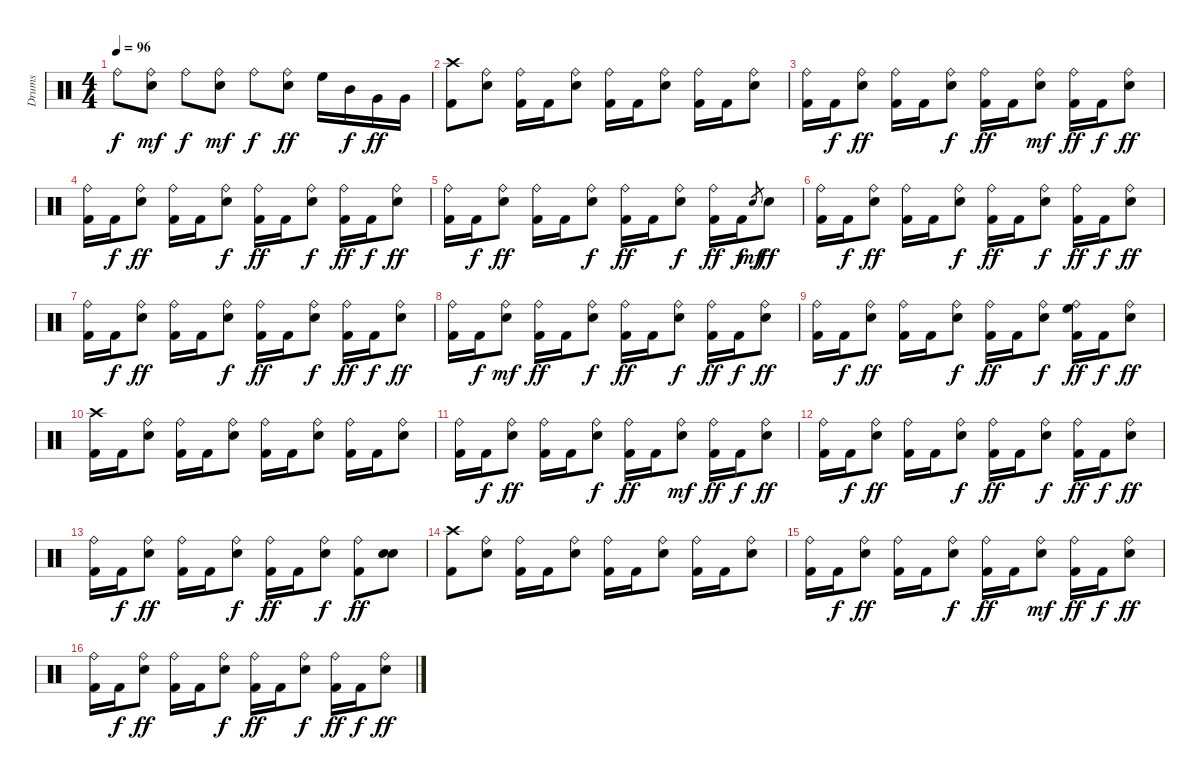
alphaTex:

\track ("Drums" "Drums") {instrument percussion}
\staff {score}
\articulation defaults
\ts (4 4)
\tempo 96
\clef neutral
\ks c "Ride (bell)".8{dy f}
("Electric Snare (hit)" "Ride (bell)").8{dy mf} "Ride (bell)".8{dy f} ("Electric Snare (hit)" "Ride (bell)").8{dy mf} "Ride (bell)".8{dy f} ("Electric Snare (hit)" "Ride (bell)").8{dy ff} "High Floor Tom (hit)".16 "Mid Tom (hit)".16{dy f} "Very Low Tom (hit)".16{dy ff} "Very Low Tom (hit)".16 |
("Kick (hit) 2" "Crash high (hit)").8 ("Electric Snare (hit)" "Ride (bell)").8 ("Ride (bell)" "Kick (hit) 2").16 "Kick (hit) 2".16 ("Electric Snare (hit)" "Ride (bell)").8 ("Ride (bell)" "Kick (hit) 2").16 "Kick (hit) 2".16 ("Electric Snare (hit)" "Ride (bell)").8 ("Ride (bell)" "Kick (hit) 2").16 "Kick (hit) 2".16 ("Electric Snare (hit)" "Ride (bell)").8 |
("Ride (bell)" "Kick (hit) 2").16 "Kick (hit) 2".16{dy f} ("Electric Snare (hit)" "Ride (bell)").8{dy ff} ("Ride (bell)" "Kick (hit) 2").16 "Kick (hit) 2".16 ("Electric Snare (hit)" "Ride (bell)").8{dy f} ("Ride (bell)" "Kick (hit) 2").16{dy ff} "Kick (hit) 2".16 ("Electric Snare (hit)" "Ride (bell)").8{dy mf} ("Ride (bell)" "Kick (hit) 2").16{dy ff} "Kick (hit) 2".16{dy f} ("Electric Snare (hit)" "Ride (bell)").8{dy ff} |
("Ride (bell)" "Kick (hit) 2").16 "Kick (hit) 2".16{dy f} ("Electric Snare (hit)" "Ride (bell)").8{dy ff} ("Ride (bell)" "Kick (hit) 2").16 "Kick (hit) 2".16 ("Electric Snare (hit)" "Ride (bell)").8{dy f} ("Ride (bell)" "Kick (hit) 2").16{dy ff} "Kick (hit) 2".16 ("Electric Snare (hit)" "Ride (bell)").8{dy f} ("Ride (bell)" "Kick (hit) 2").16{dy ff} "Kick (hit) 2".16{dy f} ("Electric Snare (hit)" "Ride (bell)").8{dy ff} |
("Ride (bell)" "Kick (hit) 2").16 "Kick (hit) 2".16{dy f} ("Electric Snare (hit)" "Ride (bell)").8{dy ff} ("Ride (bell)" "Kick (hit) 2").16 "Kick (hit) 2".16 ("Electric Snare (hit)" "Ride (bell)").8{dy f} ("Ride (bell)" "Kick (hit) 2").16{dy ff} "Kick (hit) 2".16 ("Electric Snare (hit)" "Ride (bell)").8{dy f} ("Ride (bell)" "Kick (hit) 2").16{dy ff} "Kick (hit) 2".16{dy f} "Electric Snare (hit)".8{gr dy mf} "Electric Snare (hit)".8{dy ff} |
("Ride (bell)" "Kick (hit) 2").16 "Kick (hit) 2".16{dy f} ("Electric Snare (hit)" "Ride (bell)").8{dy ff} ("Ride (bell)" "Kick (hit) 2").16 "Kick (hit) 2".16 ("Electric Snare (hit)" "Ride (bell)").8{dy f} ("Ride (bell)" "Kick (hit) 2").16{dy ff} "Kick (hit) 2".16 ("Electric Snare (hit)" "Ride (bell)").8{dy f} ("Ride (bell)" "Kick (hit) 2").16{dy ff} "Kick (hit) 2".16{dy f} ("Electric Snare (hit)" "Ride (bell)").8{dy ff} |
("Ride (bell)" "Kick (hit) 2").16 "Kick (hit) 2".16{dy f} ("Electric Snare (hit)" "Ride (bell)").8{dy ff} ("Ride (bell)" "Kick (hit) 2").16 "Kick (hit) 2".16 ("Electric Snare (hit)" "Ride (bell)").8{dy f} ("Ride (bell)" "Kick (hit) 2").16{dy ff} "Kick (hit) 2".16 ("Electric Snare (hit)" "Ride (bell)").8{dy f} ("Ride (bell)" "Kick (hit) 2").16{dy ff} "Kick (hit) 2".16{dy f} ("Electric Snare (hit)" "Ride (bell)").8{dy ff} |
("Ride (bell)" "Kick (hit) 2").16 "Kick (hit) 2".16{dy f} ("Electric Snare (hit)" "Ride (bell)").8{dy mf} ("Ride (bell)" "Kick (hit) 2").16{dy ff} "Kick (hit) 2".16 ("Electric Snare (hit)" "Ride (bell)").8{dy f} ("Ride (bell)" "Kick (hit) 2").16{dy ff} "Kick (hit) 2".16 ("Electric Snare (hit)" "Ride (bell)").8{dy f} ("Ride (bell)" "Kick (hit) 2").16{dy ff} "Kick (hit) 2".16{dy f} ("Electric Snare (hit)" "Ride (bell)").8{dy ff} |
("Ride (bell)" "Kick (hit) 2").16 "Kick (hit) 2".16{dy f} ("Electric Snare (hit)" "Ride (bell)").8{dy ff} ("Ride (bell)" "Kick (hit) 2").16 "Kick (hit) 2".16 ("Electric Snare (hit)" "Ride (bell)").8{dy f} ("Ride (bell)" "Kick (hit) 2").16{dy ff} "Kick (hit) 2".16 ("Electric Snare (hit)" "Ride (bell)").8{dy f} ("Ride (bell)" "High Floor Tom (hit)" "Kick (hit) 2").16{dy ff} "Kick (hit) 2".16{dy f} ("Electric Snare (hit)" "Ride (bell)").8{dy ff} |
("Kick (hit) 2" "Crash high (hit)").16 "Kick (hit) 2".16 ("Electric Snare (hit)" "Ride (bell)").8 ("Ride (bell)" "Kick (hit) 2").16 "Kick (hit) 2".16 ("Electric Snare (hit)" "Ride (bell)").8 ("Ride (bell)" "Kick (hit) 2").16 "Kick (hit) 2".16 ("Electric Snare (hit)" "Ride (bell)").8 ("Ride (bell)" "Kick (hit) 2").16 "Kick (hit) 2".16 ("Electric Snare (hit)" "Ride (bell)").8 |
("Ride (bell)" "Kick (hit) 2").16 "Kick (hit) 2".16{dy f} ("Electric Snare (hit)" "Ride (bell)").8{dy ff} ("Ride (bell)" "Kick (hit) 2").16 "Kick (hit) 2".16 ("Electric Snare (hit)" "Ride (bell)").8{dy f} ("Ride (bell)" "Kick (hit) 2").16{dy ff} "Kick (hit) 2".16 ("Electric Snare (hit)" "Ride (bell)").8{dy mf} ("Ride (bell)" "Kick (hit) 2").16{dy ff} "Kick (hit) 2".16{dy f} ("Electric Snare (hit)" "Ride (bell)").8{dy ff} |
("Ride (bell)" "Kick (hit) 2").16 "Kick (hit) 2".16{dy f} ("Electric Snare (hit)" "Ride (bell)").8{dy ff} ("Ride (bell)" "Kick (hit) 2").16 "Kick (hit) 2".16 ("Electric Snare (hit)" "Ride (bell)").8{dy f} ("Ride (bell)" "Kick (hit) 2").16{dy ff} "Kick (hit) 2".16 ("Electric Snare (hit)" "Ride (bell)").8{dy f} ("Ride (bell)" "Kick (hit) 2").16{dy ff} "Kick (hit) 2".16{dy f} ("Electric Snare (hit)" "Ride (bell)").8{dy ff} |
("Ride (bell)" "Kick (hit) 2").16 "Kick (hit) 2".16{dy f} ("Electric Snare (hit)" "Ride (bell)").8{dy ff} ("Ride (bell)" "Kick (hit) 2").16 "Kick (hit) 2".16 ("Electric Snare (hit)" "Ride (bell)").8{dy f} ("Ride (bell)" "Kick (hit) 2").16{dy ff} "Kick (hit) 2".16 ("Electric Snare (hit)" "Ride (bell)").8{dy f} ("Ride (bell)" "Kick (hit) 2").8{dy ff} ("Electric Snare (hit)" "Electric Snare (hit)").8 |
("Kick (hit) 2" "Crash high (hit)").8 ("Electric Snare (hit)" "Ride (bell)").8 ("Ride (bell)" "Kick (hit) 2").16 "Kick (hit) 2".16 ("Electric Snare (hit)" "Ride (bell)").8 ("Ride (bell)" "Kick (hit) 2").16 "Kick (hit) 2".16 ("Electric Snare (hit)" "Ride (bell)").8 ("Ride (bell)" "Kick (hit) 2").16 "Kick (hit) 2".16 ("Electric Snare (hit)" "Ride (bell)").8 |
("Ride (bell)" "Kick (hit) 2").16 "Kick (hit) 2".16{dy f} ("Electric Snare (hit)" "Ride (bell)").8{dy ff} ("Ride (bell)" "Kick (hit) 2").16 "Kick (hit) 2".16 ("Electric Snare (hit)" "Ride (bell)").8{dy f} ("Ride (bell)" "Kick (hit) 2").16{dy ff} "Kick (hit) 2".16 ("Electric Snare (hit)" "Ride (bell)").8{dy mf} ("Ride (bell)" "Kick (hit) 2").16{dy ff} "Kick (hit) 2".16{dy f} ("Electric Snare (hit)" "Ride (bell)").8{dy ff} |
("Ride (bell)" "Kick (hit) 2").16 "Kick (hit) 2".16{dy f} ("Electric Snare (hit)" "Ride (bell)").8{dy ff} ("Ride (bell)" "Kick (hit) 2").16 "Kick (hit) 2".16 ("Electric Snare (hit)" "Ride (bell)").8{dy f} ("Ride (bell)" "Kick (hit) 2").16{dy ff} "Kick (hit) 2".16 ("Electric Snare (hit)" "Ride (bell)").8{dy f} ("Ride (bell)" "Kick (hit) 2").16{dy ff} "Kick (hit) 2".16{dy f} ("Electric Snare (hit)" "Ride (bell)").8{dy ff}
